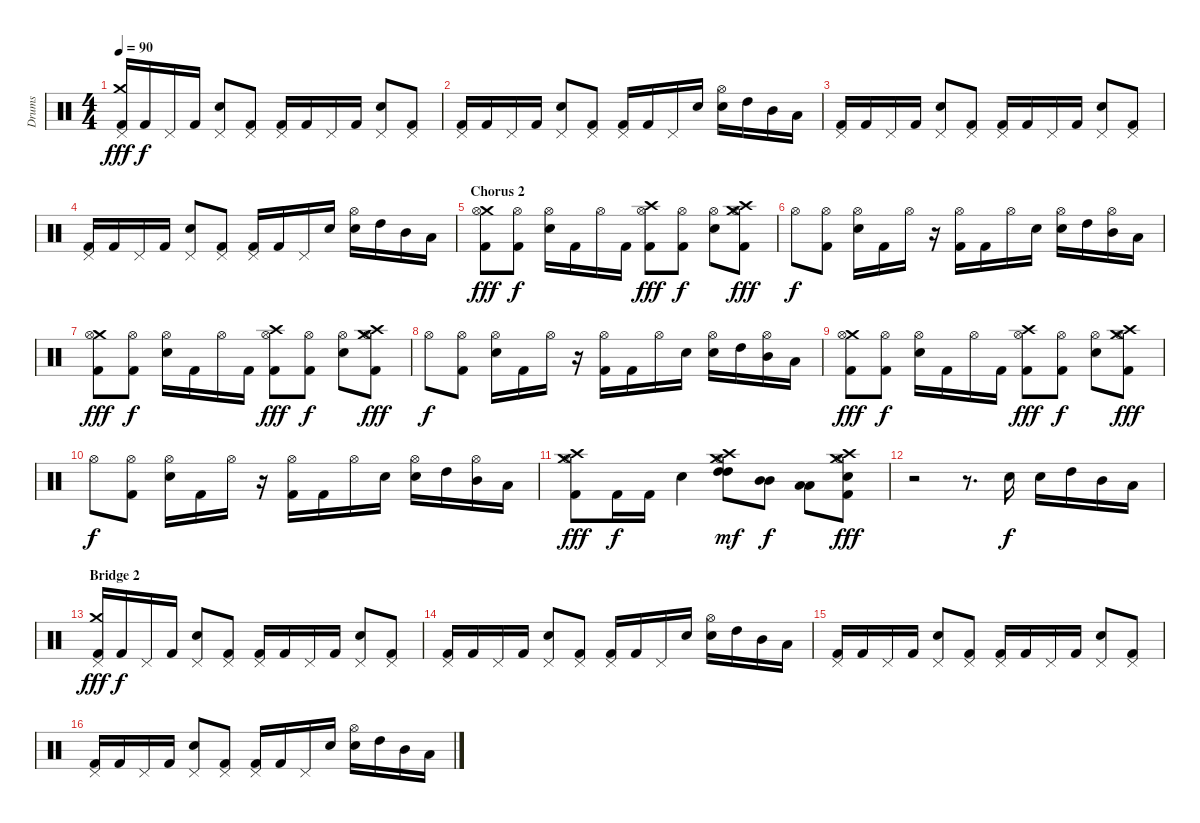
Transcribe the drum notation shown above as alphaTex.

\track ("Drums" "Drums") {instrument percussion}
\staff {score}
\articulation defaults
\ts (4 4)
\tempo 90
\clef neutral
\ks c
("Kick (hit) 2" "Crash medium (hit)" "Pedal Hi-Hat (hit)").16{dy fff} "Kick (hit) 2".16{dy f} "Pedal Hi-Hat (hit)".16 "Kick (hit) 2".16 ("Snare (hit) 2" "Pedal Hi-Hat (hit)").8 ("Kick (hit) 2" "Pedal Hi-Hat (hit)").8 ("Kick (hit) 2" "Pedal Hi-Hat (hit)").16 "Kick (hit) 2".16 "Pedal Hi-Hat (hit)".16 "Kick (hit) 2".16 ("Snare (hit) 2" "Pedal Hi-Hat (hit)").8 ("Kick (hit) 2" "Pedal Hi-Hat (hit)").8 |
("Kick (hit) 2" "Pedal Hi-Hat (hit)").16 "Kick (hit) 2".16 "Pedal Hi-Hat (hit)".16 "Kick (hit) 2".16 ("Snare (hit) 2" "Pedal Hi-Hat (hit)").8 ("Kick (hit) 2" "Pedal Hi-Hat (hit)").8 ("Kick (hit) 2" "Pedal Hi-Hat (hit)").16 "Kick (hit) 2".16 "Pedal Hi-Hat (hit)".16 "Snare (hit) 2".16 ("Snare (hit) 2" "Hi-Hat (open)").16 "High Tom (hit)".16 "Mid Tom (hit)".16 "Low Tom (hit)".16 |
("Kick (hit) 2" "Pedal Hi-Hat (hit)").16 "Kick (hit) 2".16 "Pedal Hi-Hat (hit)".16 "Kick (hit) 2".16 ("Snare (hit) 2" "Pedal Hi-Hat (hit)").8 ("Kick (hit) 2" "Pedal Hi-Hat (hit)").8 ("Kick (hit) 2" "Pedal Hi-Hat (hit)").16 "Kick (hit) 2".16 "Pedal Hi-Hat (hit)".16 "Kick (hit) 2".16 ("Snare (hit) 2" "Pedal Hi-Hat (hit)").8 ("Kick (hit) 2" "Pedal Hi-Hat (hit)").8 |
("Kick (hit) 2" "Pedal Hi-Hat (hit)").16 "Kick (hit) 2".16 "Pedal Hi-Hat (hit)".16 "Kick (hit) 2".16 ("Snare (hit) 2" "Pedal Hi-Hat (hit)").8 ("Kick (hit) 2" "Pedal Hi-Hat (hit)").8 ("Kick (hit) 2" "Pedal Hi-Hat (hit)").16 "Kick (hit) 2".16 "Pedal Hi-Hat (hit)".16 "Snare (hit) 2".16 ("Snare (hit) 2" "Hi-Hat (open)").16 "High Tom (hit)".16 "Mid Tom (hit)".16 "Low Tom (hit)".16 |
\section ("" "Chorus 2")
("Kick (hit) 2" "Crash medium (hit)" "Hi-Hat (open)").8{dy fff} ("Kick (hit) 2" "Hi-Hat (open)").8{dy f} ("Snare (hit) 2" "Hi-Hat (open)").16 "Kick (hit) 2".16 "Hi-Hat (open)".16 "Kick (hit) 2".16 ("Kick (hit) 2" "Crash high (hit)" "Hi-Hat (open)").8{dy fff} ("Kick (hit) 2" "Hi-Hat (open)").8{dy f} ("Snare (hit) 2" "Hi-Hat (open)").8 ("Kick (hit) 2" "Crash medium (hit)" "Crash high (hit)" "Hi-Hat (open)").8{dy fff} |
"Hi-Hat (open)".8{dy f} ("Kick (hit) 2" "Hi-Hat (open)").8 ("Snare (hit) 2" "Hi-Hat (open)").16 "Kick (hit) 2".16 "Hi-Hat (open)".16 r.16 ("Kick (hit) 2" "Hi-Hat (open)").16 "Kick (hit) 2".16 "Hi-Hat (open)".16 "Snare (hit) 2".16 ("Snare (hit) 2" "Hi-Hat (open)").16 "High Tom (hit)".16 ("Mid Tom (hit)" "Hi-Hat (open)").16 "Low Tom (hit)".16 |
("Kick (hit) 2" "Crash medium (hit)" "Hi-Hat (open)").8{dy fff} ("Kick (hit) 2" "Hi-Hat (open)").8{dy f} ("Snare (hit) 2" "Hi-Hat (open)").16 "Kick (hit) 2".16 "Hi-Hat (open)".16 "Kick (hit) 2".16 ("Kick (hit) 2" "Crash high (hit)" "Hi-Hat (open)").8{dy fff} ("Kick (hit) 2" "Hi-Hat (open)").8{dy f} ("Snare (hit) 2" "Hi-Hat (open)").8 ("Kick (hit) 2" "Crash medium (hit)" "Crash high (hit)" "Hi-Hat (open)").8{dy fff} |
"Hi-Hat (open)".8{dy f} ("Kick (hit) 2" "Hi-Hat (open)").8 ("Snare (hit) 2" "Hi-Hat (open)").16 "Kick (hit) 2".16 "Hi-Hat (open)".16 r.16 ("Kick (hit) 2" "Hi-Hat (open)").16 "Kick (hit) 2".16 "Hi-Hat (open)".16 "Snare (hit) 2".16 ("Snare (hit) 2" "Hi-Hat (open)").16 "High Tom (hit)".16 ("Mid Tom (hit)" "Hi-Hat (open)").16 "Low Tom (hit)".16 |
("Kick (hit) 2" "Crash medium (hit)" "Hi-Hat (open)").8{dy fff} ("Kick (hit) 2" "Hi-Hat (open)").8{dy f} ("Snare (hit) 2" "Hi-Hat (open)").16 "Kick (hit) 2".16 "Hi-Hat (open)".16 "Kick (hit) 2".16 ("Kick (hit) 2" "Crash high (hit)" "Hi-Hat (open)").8{dy fff} ("Kick (hit) 2" "Hi-Hat (open)").8{dy f} ("Snare (hit) 2" "Hi-Hat (open)").8 ("Kick (hit) 2" "Crash medium (hit)" "Crash high (hit)" "Hi-Hat (open)").8{dy fff} |
"Hi-Hat (open)".8{dy f} ("Kick (hit) 2" "Hi-Hat (open)").8 ("Snare (hit) 2" "Hi-Hat (open)").16 "Kick (hit) 2".16 "Hi-Hat (open)".16 r.16 ("Kick (hit) 2" "Hi-Hat (open)").16 "Kick (hit) 2".16 "Hi-Hat (open)".16 "Snare (hit) 2".16 ("Snare (hit) 2" "Hi-Hat (open)").16 "High Tom (hit)".16 ("Mid Tom (hit)" "Hi-Hat (open)").16 "Low Tom (hit)".16 |
("Kick (hit) 2" "Crash medium (hit)" "Crash high (hit)" "Hi-Hat (open)").8{dy fff} "Kick (hit) 2".16{dy f} "Kick (hit) 2".16 "Snare (hit) 2".4 ("High Tom (hit)" "High Tom (hit)" "Crash medium (hit)" "Crash high (hit)" "Hi-Hat (open)").8{bd 240 dy mf} ("Mid Tom (hit)" "Mid Tom (hit)").8{bd 240 dy f} ("Low Tom (hit)" "Low Tom (hit)").8{bd 240} ("Snare (hit) 2" "Kick (hit) 2" "Crash medium (hit)" "Crash high (hit)" "Hi-Hat (open)").8{dy fff} |
r.2 r.8{d} "Snare (hit) 2".16{dy f} "Snare (hit) 2".16 "High Tom (hit)".16 "Mid Tom (hit)".16 "Low Tom (hit)".16 |
\section ("" "Bridge 2")
("Kick (hit) 2" "Crash medium (hit)" "Pedal Hi-Hat (hit)").16{dy fff} "Kick (hit) 2".16{dy f} "Pedal Hi-Hat (hit)".16 "Kick (hit) 2".16 ("Snare (hit) 2" "Pedal Hi-Hat (hit)").8 ("Kick (hit) 2" "Pedal Hi-Hat (hit)").8 ("Kick (hit) 2" "Pedal Hi-Hat (hit)").16 "Kick (hit) 2".16 "Pedal Hi-Hat (hit)".16 "Kick (hit) 2".16 ("Snare (hit) 2" "Pedal Hi-Hat (hit)").8 ("Kick (hit) 2" "Pedal Hi-Hat (hit)").8 |
("Kick (hit) 2" "Pedal Hi-Hat (hit)").16 "Kick (hit) 2".16 "Pedal Hi-Hat (hit)".16 "Kick (hit) 2".16 ("Snare (hit) 2" "Pedal Hi-Hat (hit)").8 ("Kick (hit) 2" "Pedal Hi-Hat (hit)").8 ("Kick (hit) 2" "Pedal Hi-Hat (hit)").16 "Kick (hit) 2".16 "Pedal Hi-Hat (hit)".16 "Snare (hit) 2".16 ("Snare (hit) 2" "Hi-Hat (open)").16 "High Tom (hit)".16 "Mid Tom (hit)".16 "Low Tom (hit)".16 |
("Kick (hit) 2" "Pedal Hi-Hat (hit)").16 "Kick (hit) 2".16 "Pedal Hi-Hat (hit)".16 "Kick (hit) 2".16 ("Snare (hit) 2" "Pedal Hi-Hat (hit)").8 ("Kick (hit) 2" "Pedal Hi-Hat (hit)").8 ("Kick (hit) 2" "Pedal Hi-Hat (hit)").16 "Kick (hit) 2".16 "Pedal Hi-Hat (hit)".16 "Kick (hit) 2".16 ("Snare (hit) 2" "Pedal Hi-Hat (hit)").8 ("Kick (hit) 2" "Pedal Hi-Hat (hit)").8 |
("Kick (hit) 2" "Pedal Hi-Hat (hit)").16 "Kick (hit) 2".16 "Pedal Hi-Hat (hit)".16 "Kick (hit) 2".16 ("Snare (hit) 2" "Pedal Hi-Hat (hit)").8 ("Kick (hit) 2" "Pedal Hi-Hat (hit)").8 ("Kick (hit) 2" "Pedal Hi-Hat (hit)").16 "Kick (hit) 2".16 "Pedal Hi-Hat (hit)".16 "Snare (hit) 2".16 ("Snare (hit) 2" "Hi-Hat (open)").16 "High Tom (hit)".16 "Mid Tom (hit)".16 "Low Tom (hit)".16
